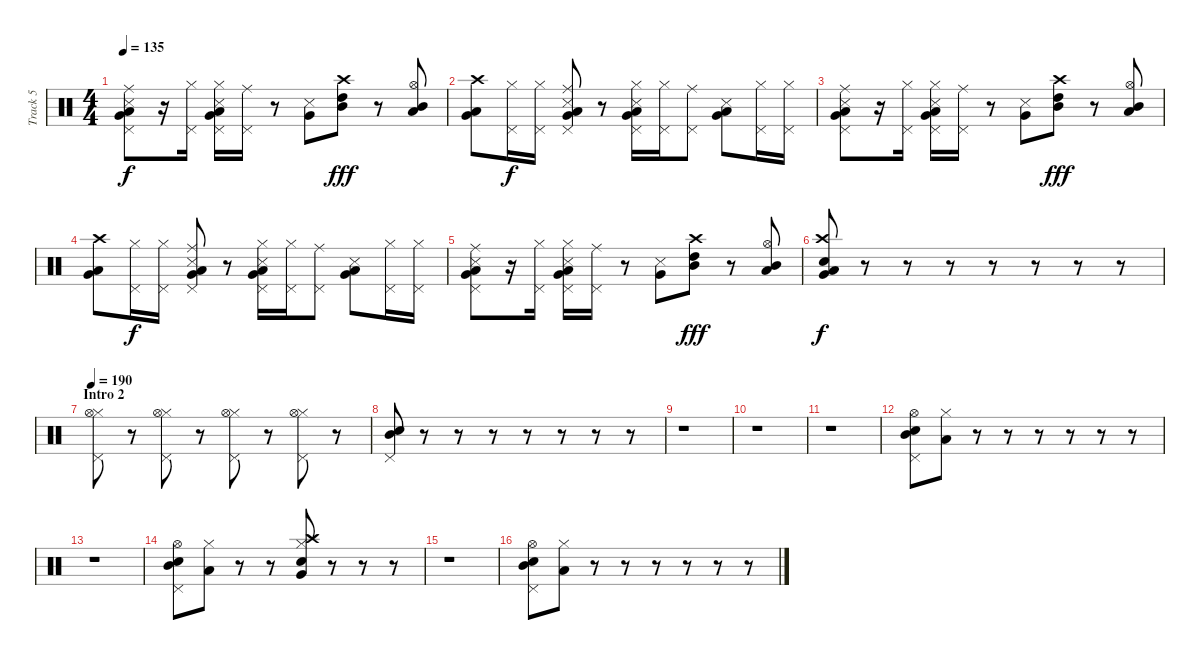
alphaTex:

\track ("Track 5" "Track 5") {instrument percussion}
\staff {score}
\articulation defaults
\ts (4 4)
\tempo 135
\clef neutral
\ks c
("Pedal Hi-Hat (hit)" "Ride (middle)" "Low Floor Tom (hit)" "Snare (side stick) 3" "Very Low Tom (hit)").8{dy f} r.16 ("Pedal Hi-Hat (hit)" "Hi-Hat (closed)").16 ("Pedal Hi-Hat (hit)" "Hi-Hat (closed)" "Low Floor Tom (hit)" "Snare (side stick) 3" "Very Low Tom (hit)").16 ("Pedal Hi-Hat (hit)" "Ride (middle)").16 r.8 ("Snare (side stick) 3" "Very Low Tom (hit)").8 ("Crash high (hit)" "High Tom (hit)" "Mid Tom (hit)").8{dy fff} r.8 ("Hi-Hat (open)" "Mid Tom (hit)" "Low Tom (hit)").8 |
("Crash high (hit)" "Low Tom (hit)" "Very Low Tom (hit)").8 ("Pedal Hi-Hat (hit)" "Hi-Hat (closed)").16{dy f} ("Pedal Hi-Hat (hit)" "Hi-Hat (closed)").16 ("Pedal Hi-Hat (hit)" "Ride (middle)" "Low Floor Tom (hit)" "Snare (side stick) 3" "Very Low Tom (hit)").8 r.8 ("Pedal Hi-Hat (hit)" "Hi-Hat (closed)" "Low Floor Tom (hit)" "Snare (side stick) 3" "Very Low Tom (hit)").16 ("Pedal Hi-Hat (hit)" "Hi-Hat (closed)").16 ("Pedal Hi-Hat (hit)" "Ride (middle)").8 ("Low Floor Tom (hit)" "Snare (side stick) 3" "Very Low Tom (hit)").8 ("Pedal Hi-Hat (hit)" "Hi-Hat (closed)").16 ("Pedal Hi-Hat (hit)" "Hi-Hat (closed)").16 |
("Pedal Hi-Hat (hit)" "Ride (middle)" "Low Floor Tom (hit)" "Snare (side stick) 3" "Very Low Tom (hit)").8 r.16 ("Pedal Hi-Hat (hit)" "Hi-Hat (closed)").16 ("Pedal Hi-Hat (hit)" "Hi-Hat (closed)" "Low Floor Tom (hit)" "Snare (side stick) 3" "Very Low Tom (hit)").16 ("Pedal Hi-Hat (hit)" "Ride (middle)").16 r.8 ("Snare (side stick) 3" "Very Low Tom (hit)").8 ("Crash high (hit)" "High Tom (hit)" "Mid Tom (hit)").8{dy fff} r.8 ("Hi-Hat (open)" "Mid Tom (hit)" "Low Tom (hit)").8 |
("Crash high (hit)" "Low Tom (hit)" "Very Low Tom (hit)").8 ("Pedal Hi-Hat (hit)" "Hi-Hat (closed)").16{dy f} ("Pedal Hi-Hat (hit)" "Hi-Hat (closed)").16 ("Pedal Hi-Hat (hit)" "Ride (middle)" "Low Floor Tom (hit)" "Snare (side stick) 3" "Very Low Tom (hit)").8 r.8 ("Pedal Hi-Hat (hit)" "Hi-Hat (closed)" "Low Floor Tom (hit)" "Snare (side stick) 3" "Very Low Tom (hit)").16 ("Pedal Hi-Hat (hit)" "Hi-Hat (closed)").16 ("Pedal Hi-Hat (hit)" "Ride (middle)").8 ("Low Floor Tom (hit)" "Snare (side stick) 3" "Very Low Tom (hit)").8 ("Pedal Hi-Hat (hit)" "Hi-Hat (closed)").16 ("Pedal Hi-Hat (hit)" "Hi-Hat (closed)").16 |
("Pedal Hi-Hat (hit)" "Ride (middle)" "Low Floor Tom (hit)" "Snare (side stick) 3" "Very Low Tom (hit)").8 r.16 ("Pedal Hi-Hat (hit)" "Hi-Hat (closed)").16 ("Pedal Hi-Hat (hit)" "Hi-Hat (closed)" "Low Floor Tom (hit)" "Snare (side stick) 3" "Very Low Tom (hit)").16 ("Pedal Hi-Hat (hit)" "Ride (middle)").16 r.8 ("Snare (side stick) 3" "Very Low Tom (hit)").8 ("Crash high (hit)" "High Tom (hit)" "Mid Tom (hit)").8{dy fff} r.8 ("Hi-Hat (open)" "Mid Tom (hit)" "Low Tom (hit)").8 |
("Crash high (hit)" "Low Tom (hit)" "Very Low Tom (hit)" "Electric Snare (hit)").8{dy f} r.8 r.8 r.8 r.8 r.8 r.8 r.8 |
\section ("" "Intro 2")
\tempo 190
("Hi-Hat (closed)" "Pedal Hi-Hat (hit)" "Hi-Hat (open)").8 r.8 ("Hi-Hat (closed)" "Pedal Hi-Hat (hit)" "Hi-Hat (open)").8 r.8 ("Hi-Hat (closed)" "Pedal Hi-Hat (hit)" "Hi-Hat (open)").8 r.8 ("Hi-Hat (closed)" "Pedal Hi-Hat (hit)" "Hi-Hat (open)").8 r.8 |
("Mid Tom (hit)" "Pedal Hi-Hat (hit)" "Snare (hit) 2").8 r.8 r.8 r.8 r.8 r.8 r.8 r.8 |
r.1 |
r.1 |
r.1 |
("Mid Tom (hit)" "Pedal Hi-Hat (hit)" "Snare (hit) 2" "Hi-Hat (open)").8 ("Hi-Hat (closed)" "Low Tom (hit)").8 r.8 r.8 r.8 r.8 r.8 r.8 |
r.1 |
("Mid Tom (hit)" "Pedal Hi-Hat (hit)" "Snare (hit) 2" "Hi-Hat (open)").8 ("Hi-Hat (closed)" "Low Tom (hit)").8 r.8 r.8 ("Very Low Tom (hit)" "Hi-Hat (closed)" "Electric Snare (hit)" "Crash high (hit)").8 r.8 r.8 r.8 |
r.1 |
("Mid Tom (hit)" "Pedal Hi-Hat (hit)" "Snare (hit) 2" "Hi-Hat (open)").8 ("Hi-Hat (closed)" "Low Tom (hit)").8 r.8 r.8 r.8 r.8 r.8 r.8
